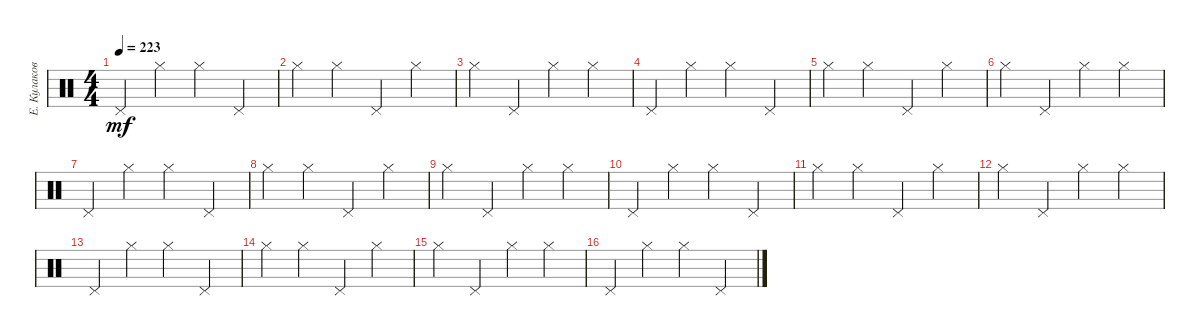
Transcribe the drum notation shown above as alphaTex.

\track ("Е. Кулаков" "Е. Кулаков") {instrument percussion}
\staff {score}
\articulation defaults
\ts (4 4)
\tempo 223
\clef neutral
\ks c "Pedal Hi-Hat (hit)".4{dy mf} "Hi-Hat (closed)".4 "Hi-Hat (closed)".4 "Pedal Hi-Hat (hit)".4
|
"Hi-Hat (closed)".4 "Hi-Hat (closed)".4 "Pedal Hi-Hat (hit)".4 "Hi-Hat (closed)".4 |
"Hi-Hat (closed)".4 "Pedal Hi-Hat (hit)".4 "Hi-Hat (closed)".4 "Hi-Hat (closed)".4 |
"Pedal Hi-Hat (hit)".4 "Hi-Hat (closed)".4 "Hi-Hat (closed)".4 "Pedal Hi-Hat (hit)".4 |
"Hi-Hat (closed)".4 "Hi-Hat (closed)".4 "Pedal Hi-Hat (hit)".4 "Hi-Hat (closed)".4 |
"Hi-Hat (closed)".4 "Pedal Hi-Hat (hit)".4 "Hi-Hat (closed)".4 "Hi-Hat (closed)".4 |
"Pedal Hi-Hat (hit)".4 "Hi-Hat (closed)".4 "Hi-Hat (closed)".4 "Pedal Hi-Hat (hit)".4 |
"Hi-Hat (closed)".4 "Hi-Hat (closed)".4 "Pedal Hi-Hat (hit)".4 "Hi-Hat (closed)".4 |
"Hi-Hat (closed)".4 "Pedal Hi-Hat (hit)".4 "Hi-Hat (closed)".4 "Hi-Hat (closed)".4 |
"Pedal Hi-Hat (hit)".4 "Hi-Hat (closed)".4 "Hi-Hat (closed)".4 "Pedal Hi-Hat (hit)".4 |
"Hi-Hat (closed)".4 "Hi-Hat (closed)".4 "Pedal Hi-Hat (hit)".4 "Hi-Hat (closed)".4 |
"Hi-Hat (closed)".4 "Pedal Hi-Hat (hit)".4 "Hi-Hat (closed)".4 "Hi-Hat (closed)".4 |
"Pedal Hi-Hat (hit)".4 "Hi-Hat (closed)".4 "Hi-Hat (closed)".4 "Pedal Hi-Hat (hit)".4 |
"Hi-Hat (closed)".4 "Hi-Hat (closed)".4 "Pedal Hi-Hat (hit)".4 "Hi-Hat (closed)".4 |
"Hi-Hat (closed)".4 "Pedal Hi-Hat (hit)".4 "Hi-Hat (closed)".4 "Hi-Hat (closed)".4 |
"Pedal Hi-Hat (hit)".4 "Hi-Hat (closed)".4 "Hi-Hat (closed)".4 "Pedal Hi-Hat (hit)".4
